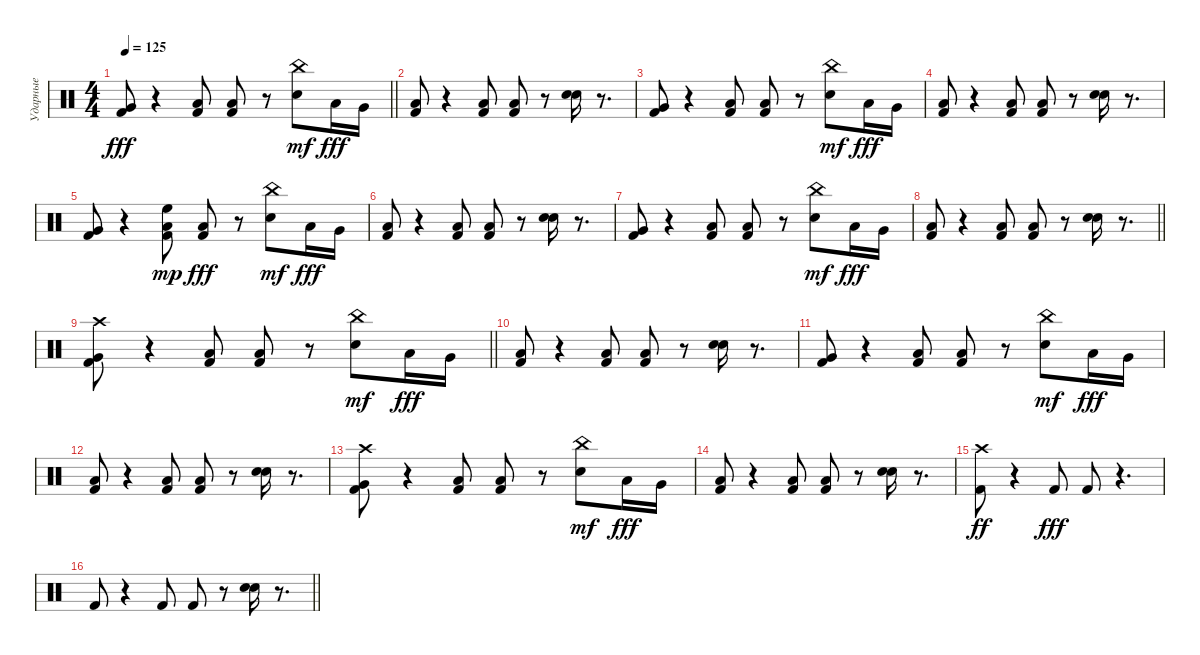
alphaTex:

\track ("Ударные" "Ударные") {instrument percussion}
\staff {score}
\articulation defaults
\ts (4 4)
\tempo 125
\clef neutral
\barLineRight lightlight
\ks c
("Kick (hit) 2" "Very Low Tom (hit)").8{dy fff} r.4 ("Kick (hit) 2" "Low Floor Tom (hit)").8 ("Kick (hit) 2" "Low Floor Tom (hit)").8 r.8 ("Snare (hit) 2" "China (hit)").8{dy mf} "Low Tom (hit)".16{dy fff} "Very Low Tom (hit)".16 |
("Kick (hit) 2" "Low Floor Tom (hit)").8 r.4 ("Kick (hit) 2" "Low Floor Tom (hit)").8 ("Kick (hit) 2" "Low Floor Tom (hit)").8 r.8 ("Snare (hit) 2" "Snare (hit) 2").16 r.8{d} |
("Kick (hit) 2" "Very Low Tom (hit)").8 r.4 ("Kick (hit) 2" "Low Floor Tom (hit)").8 ("Kick (hit) 2" "Low Floor Tom (hit)").8 r.8 ("Snare (hit) 2" "China (hit)").8{dy mf} "Low Tom (hit)".16{dy fff} "Very Low Tom (hit)".16 |
("Kick (hit) 2" "Low Floor Tom (hit)").8 r.4 ("Kick (hit) 2" "Low Floor Tom (hit)").8 ("Kick (hit) 2" "Low Floor Tom (hit)").8 r.8 ("Snare (hit) 2" "Snare (hit) 2").16 r.8{d} |
("Kick (hit) 2" "Very Low Tom (hit)").8 r.4 ("Kick (hit) 2" "Low Floor Tom (hit)" "High Floor Tom (hit)").8{dy mp} ("Kick (hit) 2" "Low Floor Tom (hit)").8{dy fff} r.8 ("Snare (hit) 2" "China (hit)").8{dy mf} "Low Tom (hit)".16{dy fff} "Very Low Tom (hit)".16 |
("Kick (hit) 2" "Low Floor Tom (hit)").8 r.4 ("Kick (hit) 2" "Low Floor Tom (hit)").8 ("Kick (hit) 2" "Low Floor Tom (hit)").8 r.8 ("Snare (hit) 2" "Snare (hit) 2").16 r.8{d} |
("Kick (hit) 2" "Very Low Tom (hit)").8 r.4 ("Kick (hit) 2" "Low Floor Tom (hit)").8 ("Kick (hit) 2" "Low Floor Tom (hit)").8 r.8 ("Snare (hit) 2" "China (hit)").8{dy mf} "Low Tom (hit)".16{dy fff} "Very Low Tom (hit)".16 |
\barLineRight lightlight
("Kick (hit) 2" "Low Floor Tom (hit)").8 r.4 ("Kick (hit) 2" "Low Floor Tom (hit)").8 ("Kick (hit) 2" "Low Floor Tom (hit)").8 r.8 ("Snare (hit) 2" "Snare (hit) 2").16 r.8{d} |
\barLineRight lightlight
("Kick (hit) 2" "Very Low Tom (hit)" "Crash high (hit)").8 r.4 ("Kick (hit) 2" "Low Floor Tom (hit)").8 ("Kick (hit) 2" "Low Floor Tom (hit)").8 r.8 ("Snare (hit) 2" "China (hit)").8{dy mf} "Low Tom (hit)".16{dy fff} "Very Low Tom (hit)".16 |
("Kick (hit) 2" "Low Floor Tom (hit)").8 r.4 ("Kick (hit) 2" "Low Floor Tom (hit)").8 ("Kick (hit) 2" "Low Floor Tom (hit)").8 r.8 ("Snare (hit) 2" "Snare (hit) 2").16 r.8{d} |
("Kick (hit) 2" "Very Low Tom (hit)").8 r.4 ("Kick (hit) 2" "Low Floor Tom (hit)").8 ("Kick (hit) 2" "Low Floor Tom (hit)").8 r.8 ("Snare (hit) 2" "China (hit)").8{dy mf} "Low Tom (hit)".16{dy fff} "Very Low Tom (hit)".16 |
("Kick (hit) 2" "Low Floor Tom (hit)").8 r.4 ("Kick (hit) 2" "Low Floor Tom (hit)").8 ("Kick (hit) 2" "Low Floor Tom (hit)").8 r.8 ("Snare (hit) 2" "Snare (hit) 2").16 r.8{d} |
("Kick (hit) 2" "Very Low Tom (hit)" "Crash high (hit)").8 r.4 ("Kick (hit) 2" "Low Floor Tom (hit)").8 ("Kick (hit) 2" "Low Floor Tom (hit)").8 r.8 ("Snare (hit) 2" "China (hit)").8{dy mf} "Low Tom (hit)".16{dy fff} "Very Low Tom (hit)".16 |
("Kick (hit) 2" "Low Floor Tom (hit)").8 r.4 ("Kick (hit) 2" "Low Floor Tom (hit)").8 ("Kick (hit) 2" "Low Floor Tom (hit)").8 r.8 ("Snare (hit) 2" "Snare (hit) 2").16 r.8{d} |
("Kick (hit) 2" "Crash high (hit)").8{dy ff} r.4 "Kick (hit) 2".8{dy fff} "Kick (hit) 2".8 r.4{d} |
\barLineRight lightlight "Kick (hit) 2".8
r.4 "Kick (hit) 2".8 "Kick (hit) 2".8 r.8 ("Snare (hit) 2" "Snare (hit) 2").16 r.8{d}
